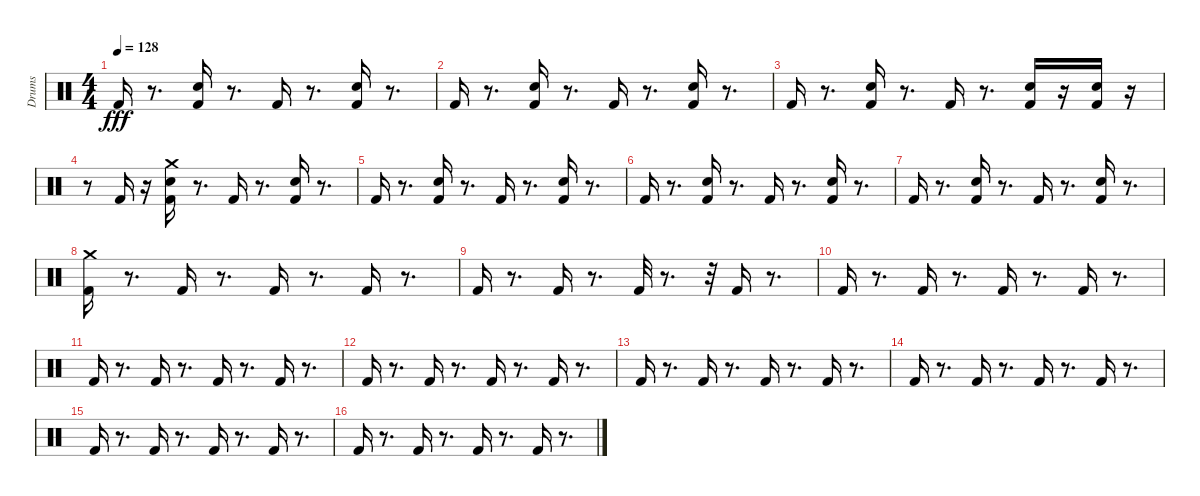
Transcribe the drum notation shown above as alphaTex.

\track ("Drums" "Drums") {instrument percussion}
\staff {score}
\articulation defaults
\ts (4 4)
\tempo 128
\clef neutral
\ks c "Kick (hit) 2".16{dy fff}
r.8{d} ("Kick (hit) 2" "Electric Snare (hit)").16 r.8{d} "Kick (hit) 2".16 r.8{d} ("Kick (hit) 2" "Electric Snare (hit)").16 r.8{d} |
"Kick (hit) 2".16 r.8{d} ("Kick (hit) 2" "Electric Snare (hit)").16 r.8{d} "Kick (hit) 2".16 r.8{d} ("Kick (hit) 2" "Electric Snare (hit)").16 r.8{d} |
"Kick (hit) 2".16 r.8{d} ("Kick (hit) 2" "Electric Snare (hit)").16 r.8{d} "Kick (hit) 2".16 r.8{d} ("Kick (hit) 2" "Electric Snare (hit)").16 r.16 ("Kick (hit) 2" "Electric Snare (hit)").16 r.16 |
r.8 "Kick (hit) 2".16 r.16 ("Crash medium (hit)" "Kick (hit) 2" "Electric Snare (hit)").16 r.8{d} "Kick (hit) 2".16 r.8{d} ("Kick (hit) 2" "Electric Snare (hit)").16 r.8{d} |
"Kick (hit) 2".16 r.8{d} ("Kick (hit) 2" "Electric Snare (hit)").16 r.8{d} "Kick (hit) 2".16 r.8{d} ("Kick (hit) 2" "Electric Snare (hit)").16 r.8{d} |
"Kick (hit) 2".16 r.8{d} ("Kick (hit) 2" "Electric Snare (hit)").16 r.8{d} "Kick (hit) 2".16 r.8{d} ("Kick (hit) 2" "Electric Snare (hit)").16 r.8{d} |
"Kick (hit) 2".16 r.8{d} ("Kick (hit) 2" "Electric Snare (hit)").16 r.8{d} "Kick (hit) 2".16 r.8{d} ("Kick (hit) 2" "Electric Snare (hit)").16 r.8{d} |
("Kick (hit) 2" "Crash medium (hit)").16 r.8{d} "Kick (hit) 2".16 r.8{d} "Kick (hit) 2".16 r.8{d} "Kick (hit) 2".16 r.8{d} |
"Kick (hit) 2".16 r.8{d} "Kick (hit) 2".16 r.8{d} "Kick (hit) 2".32 r.8{d} r.32 "Kick (hit) 2".16 r.8{d} |
"Kick (hit) 2".16 r.8{d} "Kick (hit) 2".16 r.8{d} "Kick (hit) 2".16 r.8{d} "Kick (hit) 2".16 r.8{d} |
"Kick (hit) 2".16 r.8{d} "Kick (hit) 2".16 r.8{d} "Kick (hit) 2".16 r.8{d} "Kick (hit) 2".16 r.8{d} |
"Kick (hit) 2".16 r.8{d} "Kick (hit) 2".16 r.8{d} "Kick (hit) 2".16 r.8{d} "Kick (hit) 2".16 r.8{d} |
"Kick (hit) 2".16 r.8{d} "Kick (hit) 2".16 r.8{d} "Kick (hit) 2".16 r.8{d} "Kick (hit) 2".16 r.8{d} |
"Kick (hit) 2".16 r.8{d} "Kick (hit) 2".16 r.8{d} "Kick (hit) 2".16 r.8{d} "Kick (hit) 2".16 r.8{d} |
"Kick (hit) 2".16 r.8{d} "Kick (hit) 2".16 r.8{d} "Kick (hit) 2".16 r.8{d} "Kick (hit) 2".16 r.8{d} |
"Kick (hit) 2".16 r.8{d} "Kick (hit) 2".16 r.8{d} "Kick (hit) 2".16 r.8{d} "Kick (hit) 2".16 r.8{d}
